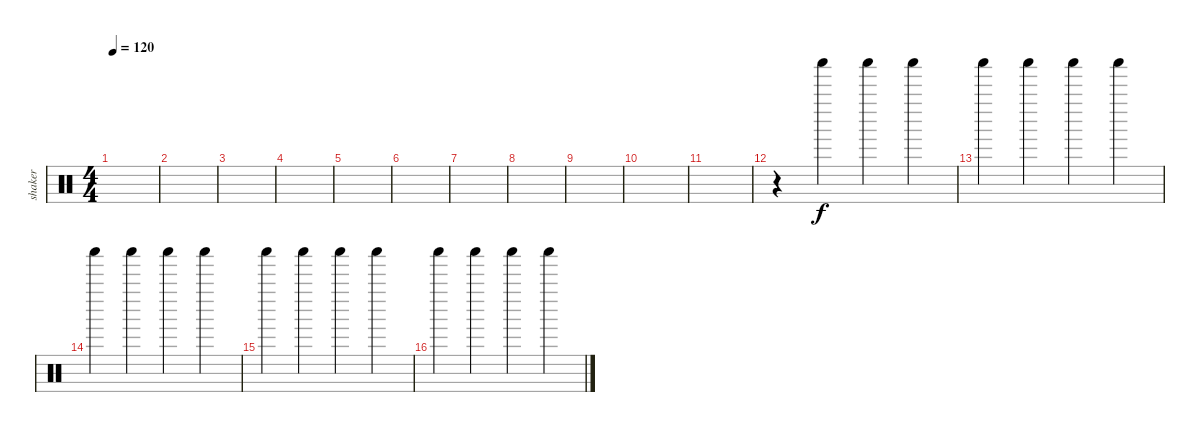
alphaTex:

\track ("shaker" "shaker") {instrument percussion}
\staff {score}
\articulation defaults
\ts (4 4)
\tempo 120
\clef neutral
\ks c
|
|
|
|
|
|
|
|
|
|
|
r.4 "Shaker (hit)".4 "Shaker (hit)".4 "Shaker (hit)".4 |
"Shaker (hit)".4 "Shaker (hit)".4 "Shaker (hit)".4 "Shaker (hit)".4 |
"Shaker (hit)".4 "Shaker (hit)".4 "Shaker (hit)".4 "Shaker (hit)".4 |
"Shaker (hit)".4 "Shaker (hit)".4 "Shaker (hit)".4 "Shaker (hit)".4 |
"Shaker (hit)".4 "Shaker (hit)".4 "Shaker (hit)".4 "Shaker (hit)".4
